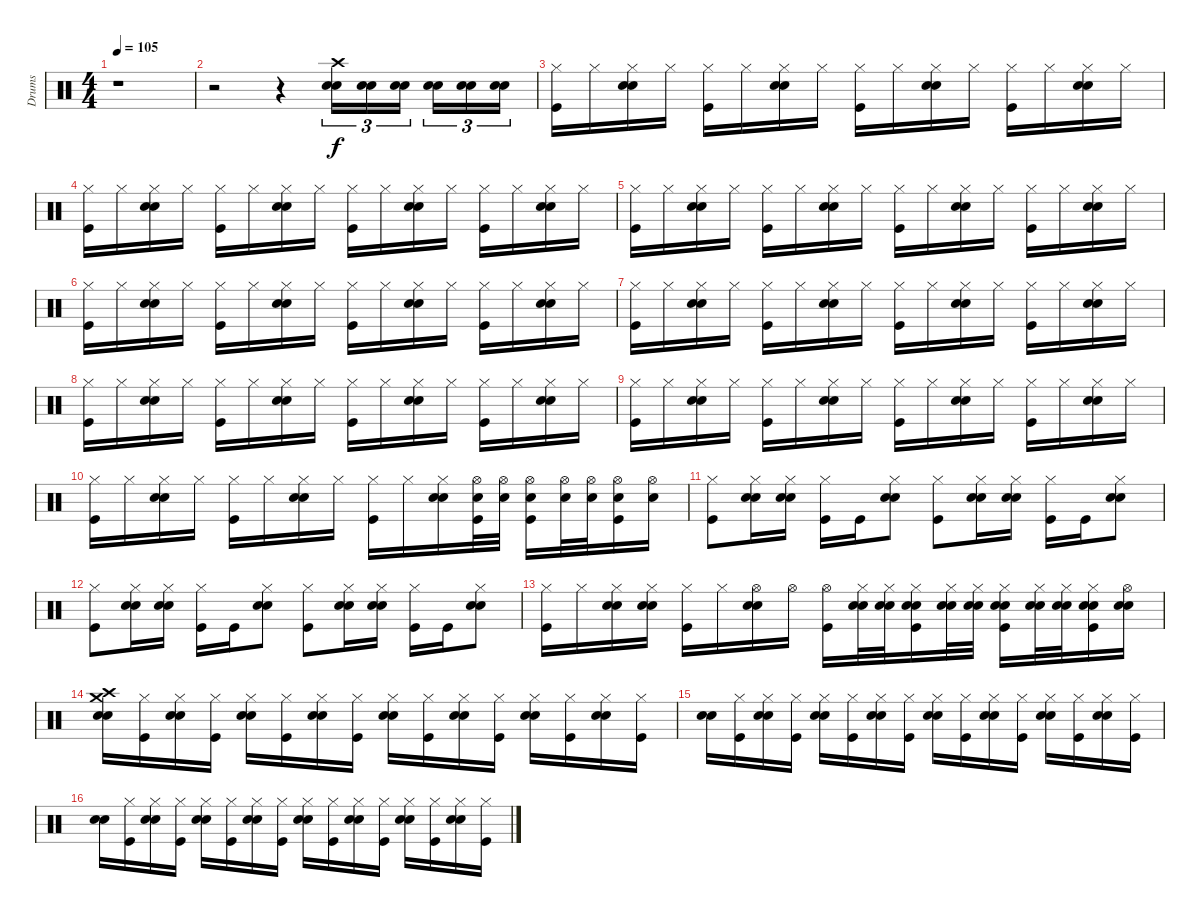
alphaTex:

\track ("Drums" "Drums") {instrument percussion}
\staff {score}
\articulation defaults
\ts (4 4)
\tempo 105
\clef neutral
\ks c
r.1{dy f} |
r.2 r.4 ("Crash high (hit)" "Electric Snare (hit)" "Snare (hit) 2").16{tu (3 2)} ("Electric Snare (hit)" "Snare (hit) 2").16{tu (3 2)} ("Electric Snare (hit)" "Snare (hit) 2").16{tu (3 2)} ("Electric Snare (hit)" "Snare (hit) 2").16{tu (3 2)} ("Electric Snare (hit)" "Snare (hit) 2").16{tu (3 2)} ("Electric Snare (hit)" "Snare (hit) 2").16{tu (3 2)} |
("Hi-Hat (closed)" "Kick (hit)").16 "Hi-Hat (closed)".16 ("Electric Snare (hit)" "Snare (hit) 2" "Hi-Hat (closed)").16 "Hi-Hat (closed)".16 ("Hi-Hat (closed)" "Kick (hit)").16 "Hi-Hat (closed)".16 ("Electric Snare (hit)" "Snare (hit) 2" "Hi-Hat (closed)").16 "Hi-Hat (closed)".16 ("Hi-Hat (closed)" "Kick (hit)").16 "Hi-Hat (closed)".16 ("Electric Snare (hit)" "Snare (hit) 2" "Hi-Hat (closed)").16 "Hi-Hat (closed)".16 ("Hi-Hat (closed)" "Kick (hit)").16 "Hi-Hat (closed)".16 ("Electric Snare (hit)" "Snare (hit) 2" "Hi-Hat (closed)").16 "Hi-Hat (closed)".16 |
("Hi-Hat (closed)" "Kick (hit)").16 "Hi-Hat (closed)".16 ("Electric Snare (hit)" "Snare (hit) 2" "Hi-Hat (closed)").16 "Hi-Hat (closed)".16 ("Hi-Hat (closed)" "Kick (hit)").16 "Hi-Hat (closed)".16 ("Electric Snare (hit)" "Snare (hit) 2" "Hi-Hat (closed)").16 "Hi-Hat (closed)".16 ("Hi-Hat (closed)" "Kick (hit)").16 "Hi-Hat (closed)".16 ("Electric Snare (hit)" "Snare (hit) 2" "Hi-Hat (closed)").16 "Hi-Hat (closed)".16 ("Hi-Hat (closed)" "Kick (hit)").16 "Hi-Hat (closed)".16 ("Electric Snare (hit)" "Snare (hit) 2" "Hi-Hat (closed)").16 "Hi-Hat (closed)".16 |
("Hi-Hat (closed)" "Kick (hit)").16 "Hi-Hat (closed)".16 ("Electric Snare (hit)" "Snare (hit) 2" "Hi-Hat (closed)").16 "Hi-Hat (closed)".16 ("Hi-Hat (closed)" "Kick (hit)").16 "Hi-Hat (closed)".16 ("Electric Snare (hit)" "Snare (hit) 2" "Hi-Hat (closed)").16 "Hi-Hat (closed)".16 ("Hi-Hat (closed)" "Kick (hit)").16 "Hi-Hat (closed)".16 ("Electric Snare (hit)" "Snare (hit) 2" "Hi-Hat (closed)").16 "Hi-Hat (closed)".16 ("Hi-Hat (closed)" "Kick (hit)").16 "Hi-Hat (closed)".16 ("Electric Snare (hit)" "Snare (hit) 2" "Hi-Hat (closed)").16 "Hi-Hat (closed)".16 |
("Hi-Hat (closed)" "Kick (hit)").16 "Hi-Hat (closed)".16 ("Electric Snare (hit)" "Snare (hit) 2" "Hi-Hat (closed)").16 "Hi-Hat (closed)".16 ("Hi-Hat (closed)" "Kick (hit)").16 "Hi-Hat (closed)".16 ("Electric Snare (hit)" "Snare (hit) 2" "Hi-Hat (closed)").16 "Hi-Hat (closed)".16 ("Hi-Hat (closed)" "Kick (hit)").16 "Hi-Hat (closed)".16 ("Electric Snare (hit)" "Snare (hit) 2" "Hi-Hat (closed)").16 "Hi-Hat (closed)".16 ("Hi-Hat (closed)" "Kick (hit)").16 "Hi-Hat (closed)".16 ("Electric Snare (hit)" "Snare (hit) 2" "Hi-Hat (closed)").16 "Hi-Hat (closed)".16 |
("Hi-Hat (closed)" "Kick (hit)").16 "Hi-Hat (closed)".16 ("Electric Snare (hit)" "Snare (hit) 2" "Hi-Hat (closed)").16 "Hi-Hat (closed)".16 ("Hi-Hat (closed)" "Kick (hit)").16 "Hi-Hat (closed)".16 ("Electric Snare (hit)" "Snare (hit) 2" "Hi-Hat (closed)").16 "Hi-Hat (closed)".16 ("Hi-Hat (closed)" "Kick (hit)").16 "Hi-Hat (closed)".16 ("Electric Snare (hit)" "Snare (hit) 2" "Hi-Hat (closed)").16 "Hi-Hat (closed)".16 ("Hi-Hat (closed)" "Kick (hit)").16 "Hi-Hat (closed)".16 ("Electric Snare (hit)" "Snare (hit) 2" "Hi-Hat (closed)").16 "Hi-Hat (closed)".16 |
("Hi-Hat (closed)" "Kick (hit)").16 "Hi-Hat (closed)".16 ("Electric Snare (hit)" "Snare (hit) 2" "Hi-Hat (closed)").16 "Hi-Hat (closed)".16 ("Hi-Hat (closed)" "Kick (hit)").16 "Hi-Hat (closed)".16 ("Electric Snare (hit)" "Snare (hit) 2" "Hi-Hat (closed)").16 "Hi-Hat (closed)".16 ("Hi-Hat (closed)" "Kick (hit)").16 "Hi-Hat (closed)".16 ("Electric Snare (hit)" "Snare (hit) 2" "Hi-Hat (closed)").16 "Hi-Hat (closed)".16 ("Hi-Hat (closed)" "Kick (hit)").16 "Hi-Hat (closed)".16 ("Electric Snare (hit)" "Snare (hit) 2" "Hi-Hat (closed)").16 "Hi-Hat (closed)".16 |
("Hi-Hat (closed)" "Kick (hit)").16 "Hi-Hat (closed)".16 ("Electric Snare (hit)" "Snare (hit) 2" "Hi-Hat (closed)").16 "Hi-Hat (closed)".16 ("Hi-Hat (closed)" "Kick (hit)").16 "Hi-Hat (closed)".16 ("Electric Snare (hit)" "Snare (hit) 2" "Hi-Hat (closed)").16 "Hi-Hat (closed)".16 ("Hi-Hat (closed)" "Kick (hit)").16 "Hi-Hat (closed)".16 ("Electric Snare (hit)" "Snare (hit) 2" "Hi-Hat (closed)").16 "Hi-Hat (closed)".16 ("Hi-Hat (closed)" "Kick (hit)").16 "Hi-Hat (closed)".16 ("Electric Snare (hit)" "Snare (hit) 2" "Hi-Hat (closed)").16 "Hi-Hat (closed)".16 |
("Hi-Hat (closed)" "Kick (hit)").16 "Hi-Hat (closed)".16 ("Electric Snare (hit)" "Snare (hit) 2" "Hi-Hat (closed)").16 "Hi-Hat (closed)".16 ("Hi-Hat (closed)" "Kick (hit)").16 "Hi-Hat (closed)".16 ("Electric Snare (hit)" "Snare (hit) 2" "Hi-Hat (closed)").16 "Hi-Hat (closed)".16 ("Hi-Hat (closed)" "Kick (hit)").16 "Hi-Hat (closed)".16 ("Electric Snare (hit)" "Snare (hit) 2" "Hi-Hat (closed)").16 ("Electric Snare (hit)" "Hi-Hat (open)" "Kick (hit)").32 ("Electric Snare (hit)" "Hi-Hat (open)").32 ("Electric Snare (hit)" "Hi-Hat (open)" "Kick (hit)").16 ("Electric Snare (hit)" "Hi-Hat (open)").32 ("Electric Snare (hit)" "Hi-Hat (open)").32 ("Electric Snare (hit)" "Hi-Hat (open)" "Kick (hit)").16 ("Electric Snare (hit)" "Hi-Hat (open)").16 |
("Hi-Hat (closed)" "Kick (hit)").8 ("Electric Snare (hit)" "Snare (hit) 2" "Hi-Hat (closed)").16 ("Electric Snare (hit)" "Snare (hit) 2" "Hi-Hat (closed)").16 ("Hi-Hat (closed)" "Kick (hit)").16 "Kick (hit)".16 ("Electric Snare (hit)" "Snare (hit) 2" "Hi-Hat (closed)").8 ("Hi-Hat (closed)" "Kick (hit)").8 ("Electric Snare (hit)" "Snare (hit) 2" "Hi-Hat (closed)").16 ("Electric Snare (hit)" "Snare (hit) 2" "Hi-Hat (closed)").16 ("Hi-Hat (closed)" "Kick (hit)").16 "Kick (hit)".16 ("Electric Snare (hit)" "Snare (hit) 2" "Hi-Hat (closed)").8 |
("Hi-Hat (closed)" "Kick (hit)").8 ("Electric Snare (hit)" "Snare (hit) 2" "Hi-Hat (closed)").16 ("Electric Snare (hit)" "Snare (hit) 2" "Hi-Hat (closed)").16 ("Hi-Hat (closed)" "Kick (hit)").16 "Kick (hit)".16 ("Electric Snare (hit)" "Snare (hit) 2" "Hi-Hat (closed)").8 ("Hi-Hat (closed)" "Kick (hit)").8 ("Electric Snare (hit)" "Snare (hit) 2" "Hi-Hat (closed)").16 ("Electric Snare (hit)" "Snare (hit) 2" "Hi-Hat (closed)").16 ("Hi-Hat (closed)" "Kick (hit)").16 "Kick (hit)".16 ("Electric Snare (hit)" "Snare (hit) 2" "Hi-Hat (closed)").8 |
("Hi-Hat (closed)" "Kick (hit)").16 "Hi-Hat (closed)".16 ("Electric Snare (hit)" "Snare (hit) 2" "Hi-Hat (closed)").16 ("Electric Snare (hit)" "Snare (hit) 2" "Hi-Hat (closed)").16 ("Hi-Hat (closed)" "Kick (hit)").16 "Hi-Hat (closed)".16 ("Electric Snare (hit)" "Snare (hit) 2" "Hi-Hat (open)").16 "Hi-Hat (open)".16 ("Hi-Hat (open)" "Kick (hit)").16 ("Electric Snare (hit)" "Snare (hit) 2" "Hi-Hat (closed)").32 ("Electric Snare (hit)" "Snare (hit) 2" "Hi-Hat (closed)").32 ("Electric Snare (hit)" "Snare (hit) 2" "Hi-Hat (closed)" "Kick (hit)").16 ("Electric Snare (hit)" "Snare (hit) 2" "Hi-Hat (closed)").32 ("Electric Snare (hit)" "Snare (hit) 2" "Hi-Hat (closed)").32 ("Electric Snare (hit)" "Snare (hit) 2" "Hi-Hat (closed)" "Kick (hit)").16 ("Electric Snare (hit)" "Snare (hit) 2" "Hi-Hat (closed)").32 ("Electric Snare (hit)" "Snare (hit) 2" "Hi-Hat (closed)").32 ("Electric Snare (hit)" "Snare (hit) 2" "Hi-Hat (closed)" "Kick (hit)").16 ("Electric Snare (hit)" "Snare (hit) 2" "Hi-Hat (open)").16 |
("Crash high (hit)" "Crash medium (hit)" "Electric Snare (hit)" "Snare (hit) 2").16 ("Hi-Hat (closed)" "Kick (hit)").16 ("Electric Snare (hit)" "Hi-Hat (closed)" "Snare (hit) 2").16 ("Hi-Hat (closed)" "Kick (hit)").16 ("Electric Snare (hit)" "Hi-Hat (closed)" "Snare (hit) 2").16 ("Hi-Hat (closed)" "Kick (hit)").16 ("Electric Snare (hit)" "Hi-Hat (closed)" "Snare (hit) 2").16 ("Hi-Hat (closed)" "Kick (hit)").16 ("Electric Snare (hit)" "Hi-Hat (closed)" "Snare (hit) 2").16 ("Hi-Hat (closed)" "Kick (hit)").16 ("Electric Snare (hit)" "Hi-Hat (closed)" "Snare (hit) 2").16 ("Hi-Hat (closed)" "Kick (hit)").16 ("Electric Snare (hit)" "Hi-Hat (closed)" "Snare (hit) 2").16 ("Hi-Hat (closed)" "Kick (hit)").16 ("Electric Snare (hit)" "Hi-Hat (closed)" "Snare (hit) 2").16 ("Hi-Hat (closed)" "Kick (hit)").16 |
("Electric Snare (hit)" "Snare (hit) 2").16 ("Hi-Hat (closed)" "Kick (hit)").16 ("Electric Snare (hit)" "Hi-Hat (closed)" "Snare (hit) 2").16 ("Hi-Hat (closed)" "Kick (hit)").16 ("Electric Snare (hit)" "Hi-Hat (closed)" "Snare (hit) 2").16 ("Hi-Hat (closed)" "Kick (hit)").16 ("Electric Snare (hit)" "Hi-Hat (closed)" "Snare (hit) 2").16 ("Hi-Hat (closed)" "Kick (hit)").16 ("Electric Snare (hit)" "Hi-Hat (closed)" "Snare (hit) 2").16 ("Hi-Hat (closed)" "Kick (hit)").16 ("Electric Snare (hit)" "Hi-Hat (closed)" "Snare (hit) 2").16 ("Hi-Hat (closed)" "Kick (hit)").16 ("Electric Snare (hit)" "Hi-Hat (closed)" "Snare (hit) 2").16 ("Hi-Hat (closed)" "Kick (hit)").16 ("Electric Snare (hit)" "Hi-Hat (closed)" "Snare (hit) 2").16 ("Hi-Hat (closed)" "Kick (hit)").16 |
("Electric Snare (hit)" "Snare (hit) 2").16 ("Hi-Hat (closed)" "Kick (hit)").16 ("Electric Snare (hit)" "Hi-Hat (closed)" "Snare (hit) 2").16 ("Hi-Hat (closed)" "Kick (hit)").16 ("Electric Snare (hit)" "Hi-Hat (closed)" "Snare (hit) 2").16 ("Hi-Hat (closed)" "Kick (hit)").16 ("Electric Snare (hit)" "Hi-Hat (closed)" "Snare (hit) 2").16 ("Hi-Hat (closed)" "Kick (hit)").16 ("Electric Snare (hit)" "Hi-Hat (closed)" "Snare (hit) 2").16 ("Hi-Hat (closed)" "Kick (hit)").16 ("Electric Snare (hit)" "Hi-Hat (closed)" "Snare (hit) 2").16 ("Hi-Hat (closed)" "Kick (hit)").16 ("Electric Snare (hit)" "Hi-Hat (closed)" "Snare (hit) 2").16 ("Hi-Hat (closed)" "Kick (hit)").16 ("Electric Snare (hit)" "Hi-Hat (closed)" "Snare (hit) 2").16 ("Hi-Hat (closed)" "Kick (hit)").16
